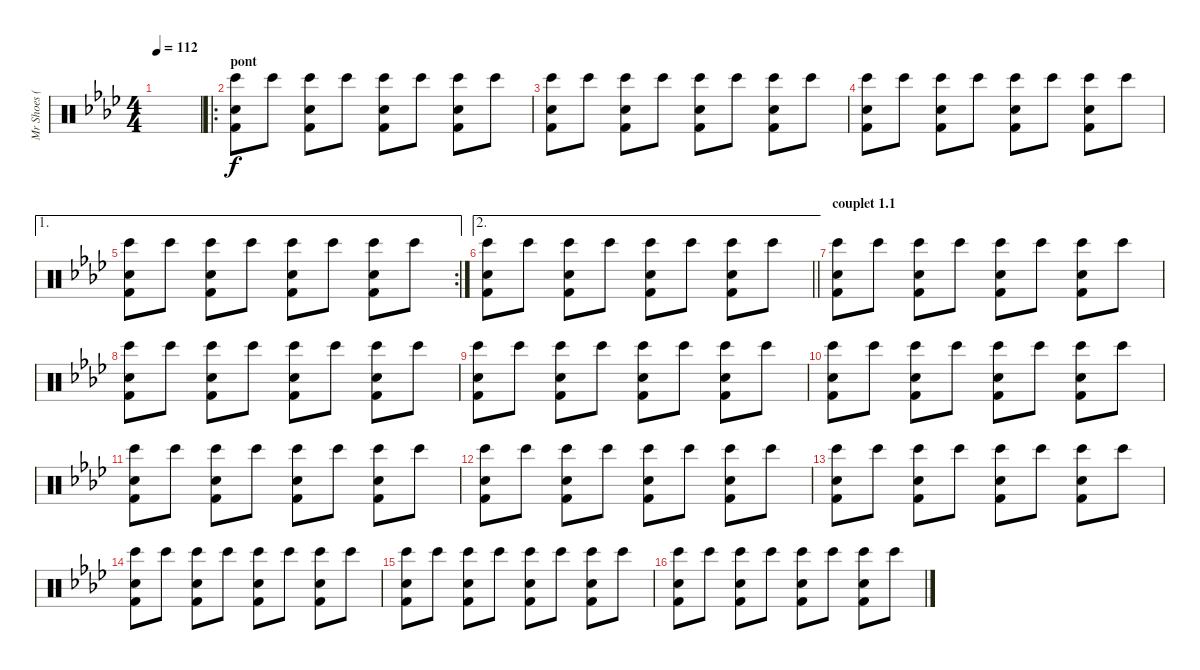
\track ("Mr Shoes (batterie)" "Mr Shoes (") {instrument percussion}
\staff {score}
\articulation defaults
\ts (4 4)
\tempo 112
\clef neutral
\ks ab
|
\ro
\section ("" "pont")
("Snare (hit) 2" "Kick (hit) 2" "Bongo High (hit)").8 "Bongo High (hit)".8 ("Snare (hit) 2" "Kick (hit) 2" "Bongo High (hit)").8 "Bongo High (hit)".8 ("Snare (hit) 2" "Kick (hit) 2" "Bongo High (hit)").8 "Bongo High (hit)".8 ("Snare (hit) 2" "Kick (hit) 2" "Bongo High (hit)").8 "Bongo High (hit)".8 |
("Snare (hit) 2" "Kick (hit) 2" "Bongo High (hit)").8 "Bongo High (hit)".8 ("Snare (hit) 2" "Kick (hit) 2" "Bongo High (hit)").8 "Bongo High (hit)".8 ("Snare (hit) 2" "Kick (hit) 2" "Bongo High (hit)").8 "Bongo High (hit)".8 ("Snare (hit) 2" "Kick (hit) 2" "Bongo High (hit)").8 "Bongo High (hit)".8 |
("Snare (hit) 2" "Kick (hit) 2" "Bongo High (hit)").8 "Bongo High (hit)".8 ("Snare (hit) 2" "Kick (hit) 2" "Bongo High (hit)").8 "Bongo High (hit)".8 ("Snare (hit) 2" "Kick (hit) 2" "Bongo High (hit)").8 "Bongo High (hit)".8 ("Snare (hit) 2" "Kick (hit) 2" "Bongo High (hit)").8 "Bongo High (hit)".8 |
\ae 1
\rc 2
("Snare (hit) 2" "Kick (hit) 2" "Bongo High (hit)").8 "Bongo High (hit)".8 ("Snare (hit) 2" "Kick (hit) 2" "Bongo High (hit)").8 "Bongo High (hit)".8 ("Snare (hit) 2" "Kick (hit) 2" "Bongo High (hit)").8 "Bongo High (hit)".8 ("Snare (hit) 2" "Kick (hit) 2" "Bongo High (hit)").8 "Bongo High (hit)".8 |
\ae 2
\barLineRight lightlight
("Snare (hit) 2" "Kick (hit) 2" "Bongo High (hit)").8 "Bongo High (hit)".8 ("Snare (hit) 2" "Kick (hit) 2" "Bongo High (hit)").8 "Bongo High (hit)".8 ("Snare (hit) 2" "Kick (hit) 2" "Bongo High (hit)").8 "Bongo High (hit)".8 ("Snare (hit) 2" "Kick (hit) 2" "Bongo High (hit)").8 "Bongo High (hit)".8 |
\section ("" "couplet 1.1")
("Snare (hit) 2" "Kick (hit) 2" "Bongo High (hit)").8 "Bongo High (hit)".8 ("Snare (hit) 2" "Kick (hit) 2" "Bongo High (hit)").8 "Bongo High (hit)".8 ("Snare (hit) 2" "Kick (hit) 2" "Bongo High (hit)").8 "Bongo High (hit)".8 ("Snare (hit) 2" "Kick (hit) 2" "Bongo High (hit)").8 "Bongo High (hit)".8 |
("Snare (hit) 2" "Kick (hit) 2" "Bongo High (hit)").8 "Bongo High (hit)".8 ("Snare (hit) 2" "Kick (hit) 2" "Bongo High (hit)").8 "Bongo High (hit)".8 ("Snare (hit) 2" "Kick (hit) 2" "Bongo High (hit)").8 "Bongo High (hit)".8 ("Snare (hit) 2" "Kick (hit) 2" "Bongo High (hit)").8 "Bongo High (hit)".8 |
("Snare (hit) 2" "Kick (hit) 2" "Bongo High (hit)").8 "Bongo High (hit)".8 ("Snare (hit) 2" "Kick (hit) 2" "Bongo High (hit)").8 "Bongo High (hit)".8 ("Snare (hit) 2" "Kick (hit) 2" "Bongo High (hit)").8 "Bongo High (hit)".8 ("Snare (hit) 2" "Kick (hit) 2" "Bongo High (hit)").8 "Bongo High (hit)".8 |
("Snare (hit) 2" "Kick (hit) 2" "Bongo High (hit)").8 "Bongo High (hit)".8 ("Snare (hit) 2" "Kick (hit) 2" "Bongo High (hit)").8 "Bongo High (hit)".8 ("Snare (hit) 2" "Kick (hit) 2" "Bongo High (hit)").8 "Bongo High (hit)".8 ("Snare (hit) 2" "Kick (hit) 2" "Bongo High (hit)").8 "Bongo High (hit)".8 |
("Snare (hit) 2" "Kick (hit) 2" "Bongo High (hit)").8 "Bongo High (hit)".8 ("Snare (hit) 2" "Kick (hit) 2" "Bongo High (hit)").8 "Bongo High (hit)".8 ("Snare (hit) 2" "Kick (hit) 2" "Bongo High (hit)").8 "Bongo High (hit)".8 ("Snare (hit) 2" "Kick (hit) 2" "Bongo High (hit)").8 "Bongo High (hit)".8 |
("Snare (hit) 2" "Kick (hit) 2" "Bongo High (hit)").8 "Bongo High (hit)".8 ("Snare (hit) 2" "Kick (hit) 2" "Bongo High (hit)").8 "Bongo High (hit)".8 ("Snare (hit) 2" "Kick (hit) 2" "Bongo High (hit)").8 "Bongo High (hit)".8 ("Snare (hit) 2" "Kick (hit) 2" "Bongo High (hit)").8 "Bongo High (hit)".8 |
("Snare (hit) 2" "Kick (hit) 2" "Bongo High (hit)").8 "Bongo High (hit)".8 ("Snare (hit) 2" "Kick (hit) 2" "Bongo High (hit)").8 "Bongo High (hit)".8 ("Snare (hit) 2" "Kick (hit) 2" "Bongo High (hit)").8 "Bongo High (hit)".8 ("Snare (hit) 2" "Kick (hit) 2" "Bongo High (hit)").8 "Bongo High (hit)".8 |
("Snare (hit) 2" "Kick (hit) 2" "Bongo High (hit)").8 "Bongo High (hit)".8 ("Snare (hit) 2" "Kick (hit) 2" "Bongo High (hit)").8 "Bongo High (hit)".8 ("Snare (hit) 2" "Kick (hit) 2" "Bongo High (hit)").8 "Bongo High (hit)".8 ("Snare (hit) 2" "Kick (hit) 2" "Bongo High (hit)").8 "Bongo High (hit)".8 |
("Snare (hit) 2" "Kick (hit) 2" "Bongo High (hit)").8 "Bongo High (hit)".8 ("Snare (hit) 2" "Kick (hit) 2" "Bongo High (hit)").8 "Bongo High (hit)".8 ("Snare (hit) 2" "Kick (hit) 2" "Bongo High (hit)").8 "Bongo High (hit)".8 ("Snare (hit) 2" "Kick (hit) 2" "Bongo High (hit)").8 "Bongo High (hit)".8 |
("Snare (hit) 2" "Kick (hit) 2" "Bongo High (hit)").8 "Bongo High (hit)".8 ("Snare (hit) 2" "Kick (hit) 2" "Bongo High (hit)").8 "Bongo High (hit)".8 ("Snare (hit) 2" "Kick (hit) 2" "Bongo High (hit)").8 "Bongo High (hit)".8 ("Snare (hit) 2" "Kick (hit) 2" "Bongo High (hit)").8 "Bongo High (hit)".8
